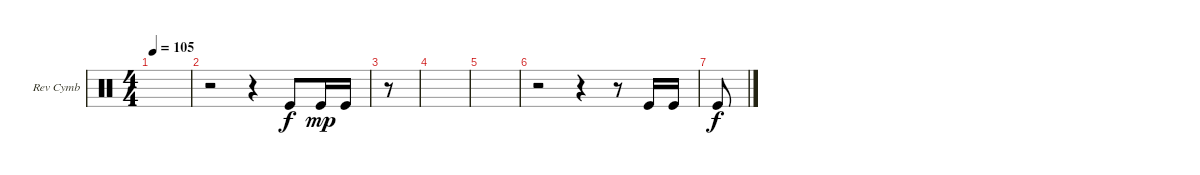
\defaultSystemsLayout 4
\bracketExtendMode groupsimilarinstruments
\firstSystemTrackNameOrientation horizontal
\otherSystemsTrackNameOrientation horizontal
\track ("Reverse Cymbal" "Rev Cymb") {instrument percussion}
\staff {score}
\articulation defaults
\ts (4 4)
\tempo 105
\clef neutral
\scale
0.333333
\ks c
|
\scale
0.333333 r.2 r.4 "Kick (hit)".8 "Kick (hit)".16{dy mp} "Kick (hit)".16 |
\scale
0.333333 r.8 |
\scale
0.333333 |
\scale
0.333333 |
\scale
0.333333 r.2 r.4 r.8 "Kick (hit)".16 "Kick (hit)".16 |
\scale
0.333333 "Kick (hit)".8{dy f} |
\scale
0.333333 |
\scale
0.333333 |
\scale
0.333333 |
\scale
0.333333 |
\scale
0.333333 |
\scale
0.333333 |
\scale
0.333333 |
\scale
0.333333 |
\scale
0.333333
